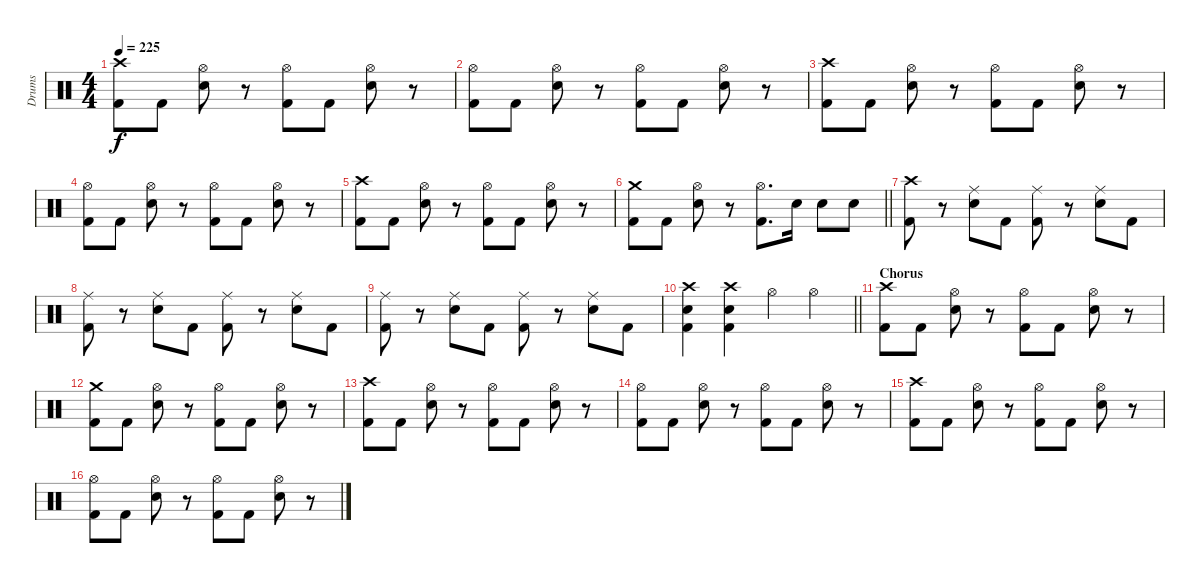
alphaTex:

\track ("Drums" "Drums") {instrument percussion}
\staff {score}
\articulation defaults
\ts (4 4)
\tempo 225
\clef neutral
\ks c
("Crash high (hit)" "Kick (hit) 2").8{dy f} "Kick (hit) 2".8 ("Hi-Hat (open)" "Electric Snare (hit)").8 r.8 ("Hi-Hat (open)" "Kick (hit) 2").8 "Kick (hit) 2".8 ("Hi-Hat (open)" "Electric Snare (hit)").8 r.8 |
("Hi-Hat (open)" "Kick (hit) 2").8 "Kick (hit) 2".8 ("Hi-Hat (open)" "Electric Snare (hit)").8 r.8 ("Hi-Hat (open)" "Kick (hit) 2").8 "Kick (hit) 2".8 ("Hi-Hat (open)" "Electric Snare (hit)").8 r.8 |
("Crash high (hit)" "Kick (hit) 2").8 "Kick (hit) 2".8 ("Hi-Hat (open)" "Electric Snare (hit)").8 r.8 ("Hi-Hat (open)" "Kick (hit) 2").8 "Kick (hit) 2".8 ("Hi-Hat (open)" "Electric Snare (hit)").8 r.8 |
("Hi-Hat (open)" "Kick (hit) 2").8 "Kick (hit) 2".8 ("Hi-Hat (open)" "Electric Snare (hit)").8 r.8 ("Hi-Hat (open)" "Kick (hit) 2").8 "Kick (hit) 2".8 ("Hi-Hat (open)" "Electric Snare (hit)").8 r.8 |
("Crash high (hit)" "Kick (hit) 2").8 "Kick (hit) 2".8 ("Hi-Hat (open)" "Electric Snare (hit)").8 r.8 ("Hi-Hat (open)" "Kick (hit) 2").8 "Kick (hit) 2".8 ("Hi-Hat (open)" "Electric Snare (hit)").8 r.8 |
\barLineRight lightlight
("Crash medium (hit)" "Kick (hit) 2").8 "Kick (hit) 2".8 ("Hi-Hat (open)" "Electric Snare (hit)").8 r.8 ("Hi-Hat (open)" "Kick (hit) 2").8{d} "Electric Snare (hit)".16 "Electric Snare (hit)".8 "Electric Snare (hit)".8 |
("Crash high (hit)" "Kick (hit) 2").8 r.8 ("Ride (middle)" "Electric Snare (hit)").8 "Kick (hit) 2".8 ("Ride (middle)" "Kick (hit) 2").8 r.8 ("Ride (middle)" "Electric Snare (hit)").8 "Kick (hit) 2".8 |
("Ride (middle)" "Kick (hit) 2").8 r.8 ("Ride (middle)" "Electric Snare (hit)").8 "Kick (hit) 2".8 ("Ride (middle)" "Kick (hit) 2").8 r.8 ("Ride (middle)" "Electric Snare (hit)").8 "Kick (hit) 2".8 |
("Ride (middle)" "Kick (hit) 2").8 r.8 ("Ride (middle)" "Electric Snare (hit)").8 "Kick (hit) 2".8 ("Ride (middle)" "Kick (hit) 2").8 r.8 ("Ride (middle)" "Electric Snare (hit)").8 "Kick (hit) 2".8 |
\barLineRight lightlight
("Crash high (hit)" "Electric Snare (hit)" "Kick (hit) 2").4 ("Crash high (hit)" "Electric Snare (hit)" "Kick (hit) 2").4 "Hi-Hat (open)".4 "Hi-Hat (open)".4 |
\section ("" "Chorus")
("Crash high (hit)" "Kick (hit) 2").8 "Kick (hit) 2".8 ("Hi-Hat (open)" "Electric Snare (hit)").8 r.8 ("Hi-Hat (open)" "Kick (hit) 2").8 "Kick (hit) 2".8 ("Hi-Hat (open)" "Electric Snare (hit)").8 r.8 |
("Crash medium (hit)" "Kick (hit) 2").8 "Kick (hit) 2".8 ("Hi-Hat (open)" "Electric Snare (hit)").8 r.8 ("Hi-Hat (open)" "Kick (hit) 2").8 "Kick (hit) 2".8 ("Hi-Hat (open)" "Electric Snare (hit)").8 r.8 |
("Crash high (hit)" "Kick (hit) 2").8 "Kick (hit) 2".8 ("Hi-Hat (open)" "Electric Snare (hit)").8 r.8 ("Hi-Hat (open)" "Kick (hit) 2").8 "Kick (hit) 2".8 ("Hi-Hat (open)" "Electric Snare (hit)").8 r.8 |
("Hi-Hat (open)" "Kick (hit) 2").8 "Kick (hit) 2".8 ("Hi-Hat (open)" "Electric Snare (hit)").8 r.8 ("Hi-Hat (open)" "Kick (hit) 2").8 "Kick (hit) 2".8 ("Hi-Hat (open)" "Electric Snare (hit)").8 r.8 |
("Crash high (hit)" "Kick (hit) 2").8 "Kick (hit) 2".8 ("Hi-Hat (open)" "Electric Snare (hit)").8 r.8 ("Hi-Hat (open)" "Kick (hit) 2").8 "Kick (hit) 2".8 ("Hi-Hat (open)" "Electric Snare (hit)").8 r.8 |
("Hi-Hat (open)" "Kick (hit) 2").8 "Kick (hit) 2".8 ("Hi-Hat (open)" "Electric Snare (hit)").8 r.8 ("Hi-Hat (open)" "Kick (hit) 2").8 "Kick (hit) 2".8 ("Hi-Hat (open)" "Electric Snare (hit)").8 r.8
